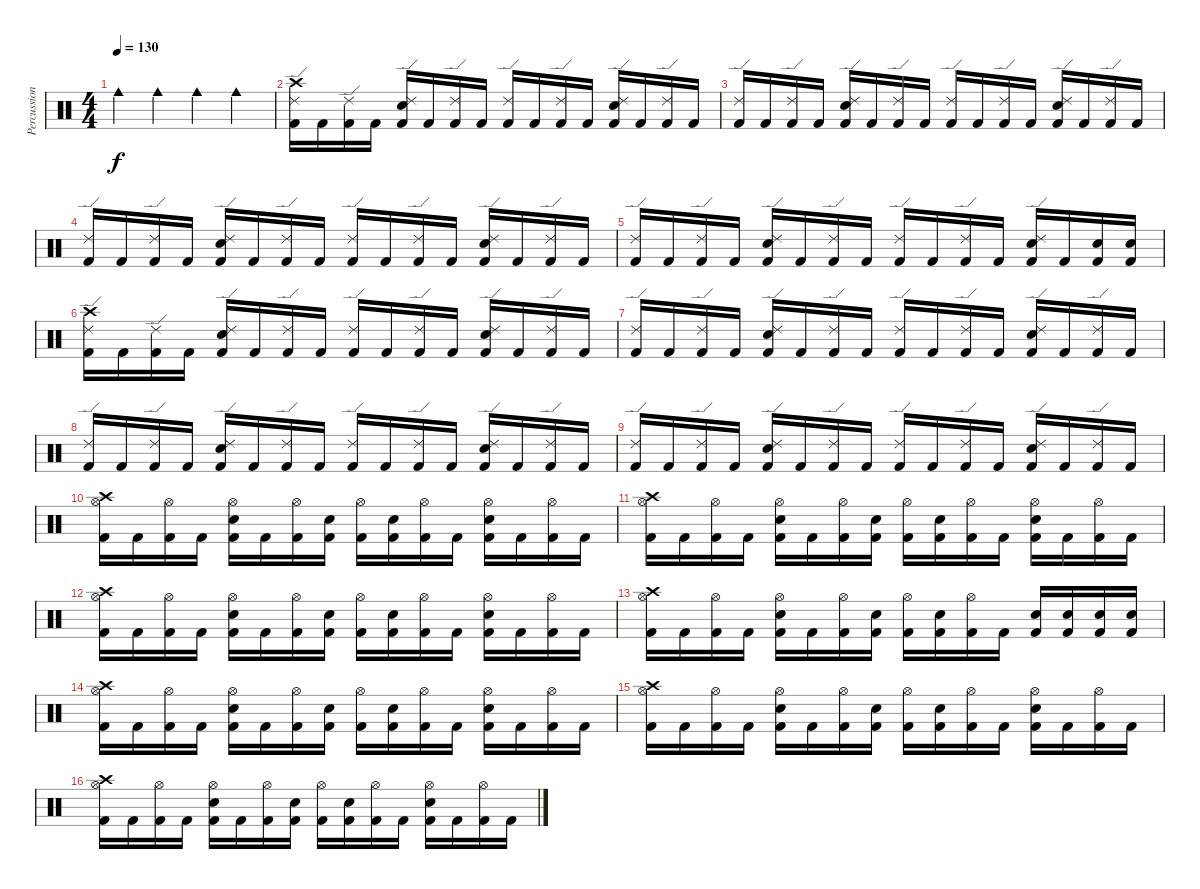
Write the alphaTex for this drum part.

\track ("Percussions" "Percussion") {instrument percussion}
\staff {score}
\articulation defaults
\ts (4 4)
\tempo 130
\clef neutral
\ks c "Cowbell medium (hit)".4{dy f} "Cowbell medium (hit)".4 "Cowbell medium (hit)".4 "Cowbell medium (hit)".4
|
("Crash high (hit)" "Ride (edge) 2" "Kick (hit) 2").16 "Kick (hit) 2".16 ("Ride (edge) 2" "Kick (hit) 2").16 "Kick (hit) 2".16 ("Electric Snare (hit)" "Ride (edge) 2" "Kick (hit) 2").16 "Kick (hit) 2".16 ("Ride (edge) 2" "Kick (hit) 2").16 "Kick (hit) 2".16 ("Ride (edge) 2" "Kick (hit) 2").16 "Kick (hit) 2".16 ("Ride (edge) 2" "Kick (hit) 2").16 "Kick (hit) 2".16 ("Electric Snare (hit)" "Ride (edge) 2" "Kick (hit) 2").16 "Kick (hit) 2".16 ("Ride (edge) 2" "Kick (hit) 2").16 "Kick (hit) 2".16 |
("Ride (edge) 2" "Kick (hit) 2").16 "Kick (hit) 2".16 ("Ride (edge) 2" "Kick (hit) 2").16 "Kick (hit) 2".16 ("Electric Snare (hit)" "Ride (edge) 2" "Kick (hit) 2").16 "Kick (hit) 2".16 ("Ride (edge) 2" "Kick (hit) 2").16 "Kick (hit) 2".16 ("Ride (edge) 2" "Kick (hit) 2").16 "Kick (hit) 2".16 ("Ride (edge) 2" "Kick (hit) 2").16 "Kick (hit) 2".16 ("Electric Snare (hit)" "Ride (edge) 2" "Kick (hit) 2").16 "Kick (hit) 2".16 ("Ride (edge) 2" "Kick (hit) 2").16 "Kick (hit) 2".16 |
("Ride (edge) 2" "Kick (hit) 2").16 "Kick (hit) 2".16 ("Ride (edge) 2" "Kick (hit) 2").16 "Kick (hit) 2".16 ("Electric Snare (hit)" "Ride (edge) 2" "Kick (hit) 2").16 "Kick (hit) 2".16 ("Ride (edge) 2" "Kick (hit) 2").16 "Kick (hit) 2".16 ("Ride (edge) 2" "Kick (hit) 2").16 "Kick (hit) 2".16 ("Ride (edge) 2" "Kick (hit) 2").16 "Kick (hit) 2".16 ("Electric Snare (hit)" "Ride (edge) 2" "Kick (hit) 2").16 "Kick (hit) 2".16 ("Ride (edge) 2" "Kick (hit) 2").16 "Kick (hit) 2".16 |
("Ride (edge) 2" "Kick (hit) 2").16 "Kick (hit) 2".16 ("Ride (edge) 2" "Kick (hit) 2").16 "Kick (hit) 2".16 ("Electric Snare (hit)" "Ride (edge) 2" "Kick (hit) 2").16 "Kick (hit) 2".16 ("Ride (edge) 2" "Kick (hit) 2").16 "Kick (hit) 2".16 ("Ride (edge) 2" "Kick (hit) 2").16 "Kick (hit) 2".16 ("Ride (edge) 2" "Kick (hit) 2").16 "Kick (hit) 2".16 ("Electric Snare (hit)" "Ride (edge) 2" "Kick (hit) 2").16 "Kick (hit) 2".16 ("Electric Snare (hit)" "Kick (hit) 2").16 ("Electric Snare (hit)" "Kick (hit) 2").16 |
("Crash high (hit)" "Ride (edge) 2" "Kick (hit) 2").16 "Kick (hit) 2".16 ("Ride (edge) 2" "Kick (hit) 2").16 "Kick (hit) 2".16 ("Electric Snare (hit)" "Ride (edge) 2" "Kick (hit) 2").16 "Kick (hit) 2".16 ("Ride (edge) 2" "Kick (hit) 2").16 "Kick (hit) 2".16 ("Ride (edge) 2" "Kick (hit) 2").16 "Kick (hit) 2".16 ("Ride (edge) 2" "Kick (hit) 2").16 "Kick (hit) 2".16 ("Electric Snare (hit)" "Ride (edge) 2" "Kick (hit) 2").16 "Kick (hit) 2".16 ("Ride (edge) 2" "Kick (hit) 2").16 "Kick (hit) 2".16 |
("Ride (edge) 2" "Kick (hit) 2").16 "Kick (hit) 2".16 ("Ride (edge) 2" "Kick (hit) 2").16 "Kick (hit) 2".16 ("Electric Snare (hit)" "Ride (edge) 2" "Kick (hit) 2").16 "Kick (hit) 2".16 ("Ride (edge) 2" "Kick (hit) 2").16 "Kick (hit) 2".16 ("Ride (edge) 2" "Kick (hit) 2").16 "Kick (hit) 2".16 ("Ride (edge) 2" "Kick (hit) 2").16 "Kick (hit) 2".16 ("Electric Snare (hit)" "Ride (edge) 2" "Kick (hit) 2").16 "Kick (hit) 2".16 ("Ride (edge) 2" "Kick (hit) 2").16 "Kick (hit) 2".16 |
("Ride (edge) 2" "Kick (hit) 2").16 "Kick (hit) 2".16 ("Ride (edge) 2" "Kick (hit) 2").16 "Kick (hit) 2".16 ("Electric Snare (hit)" "Ride (edge) 2" "Kick (hit) 2").16 "Kick (hit) 2".16 ("Ride (edge) 2" "Kick (hit) 2").16 "Kick (hit) 2".16 ("Ride (edge) 2" "Kick (hit) 2").16 "Kick (hit) 2".16 ("Ride (edge) 2" "Kick (hit) 2").16 "Kick (hit) 2".16 ("Electric Snare (hit)" "Ride (edge) 2" "Kick (hit) 2").16 "Kick (hit) 2".16 ("Ride (edge) 2" "Kick (hit) 2").16 "Kick (hit) 2".16 |
("Ride (edge) 2" "Kick (hit) 2").16 "Kick (hit) 2".16 ("Ride (edge) 2" "Kick (hit) 2").16 "Kick (hit) 2".16 ("Electric Snare (hit)" "Ride (edge) 2" "Kick (hit) 2").16 "Kick (hit) 2".16 ("Ride (edge) 2" "Kick (hit) 2").16 "Kick (hit) 2".16 ("Ride (edge) 2" "Kick (hit) 2").16 "Kick (hit) 2".16 ("Ride (edge) 2" "Kick (hit) 2").16 "Kick (hit) 2".16 ("Electric Snare (hit)" "Ride (edge) 2" "Kick (hit) 2").16 "Kick (hit) 2".16 ("Ride (edge) 2" "Kick (hit) 2").16 "Kick (hit) 2".16 |
("Crash high (hit)" "Hi-Hat (open)" "Kick (hit) 2").16 "Kick (hit) 2".16 ("Hi-Hat (open)" "Kick (hit) 2").16 "Kick (hit) 2".16 ("Electric Snare (hit)" "Hi-Hat (open)" "Kick (hit) 2").16 "Kick (hit) 2".16 ("Hi-Hat (open)" "Kick (hit) 2").16 ("Electric Snare (hit)" "Kick (hit) 2").16 ("Hi-Hat (open)" "Kick (hit) 2").16 ("Electric Snare (hit)" "Kick (hit) 2").16 ("Hi-Hat (open)" "Kick (hit) 2").16 "Kick (hit) 2".16 ("Electric Snare (hit)" "Hi-Hat (open)" "Kick (hit) 2").16 "Kick (hit) 2".16 ("Hi-Hat (open)" "Kick (hit) 2").16 "Kick (hit) 2".16 |
("Crash high (hit)" "Hi-Hat (open)" "Kick (hit) 2").16 "Kick (hit) 2".16 ("Hi-Hat (open)" "Kick (hit) 2").16 "Kick (hit) 2".16 ("Electric Snare (hit)" "Hi-Hat (open)" "Kick (hit) 2").16 "Kick (hit) 2".16 ("Hi-Hat (open)" "Kick (hit) 2").16 ("Electric Snare (hit)" "Kick (hit) 2").16 ("Hi-Hat (open)" "Kick (hit) 2").16 ("Electric Snare (hit)" "Kick (hit) 2").16 ("Hi-Hat (open)" "Kick (hit) 2").16 "Kick (hit) 2".16 ("Electric Snare (hit)" "Hi-Hat (open)" "Kick (hit) 2").16 "Kick (hit) 2".16 ("Hi-Hat (open)" "Kick (hit) 2").16 "Kick (hit) 2".16 |
("Crash high (hit)" "Hi-Hat (open)" "Kick (hit) 2").16 "Kick (hit) 2".16 ("Hi-Hat (open)" "Kick (hit) 2").16 "Kick (hit) 2".16 ("Electric Snare (hit)" "Hi-Hat (open)" "Kick (hit) 2").16 "Kick (hit) 2".16 ("Hi-Hat (open)" "Kick (hit) 2").16 ("Electric Snare (hit)" "Kick (hit) 2").16 ("Hi-Hat (open)" "Kick (hit) 2").16 ("Electric Snare (hit)" "Kick (hit) 2").16 ("Hi-Hat (open)" "Kick (hit) 2").16 "Kick (hit) 2".16 ("Electric Snare (hit)" "Hi-Hat (open)" "Kick (hit) 2").16 "Kick (hit) 2".16 ("Hi-Hat (open)" "Kick (hit) 2").16 "Kick (hit) 2".16 |
("Crash high (hit)" "Hi-Hat (open)" "Kick (hit) 2").16 "Kick (hit) 2".16 ("Hi-Hat (open)" "Kick (hit) 2").16 "Kick (hit) 2".16 ("Electric Snare (hit)" "Hi-Hat (open)" "Kick (hit) 2").16 "Kick (hit) 2".16 ("Hi-Hat (open)" "Kick (hit) 2").16 ("Electric Snare (hit)" "Kick (hit) 2").16 ("Hi-Hat (open)" "Kick (hit) 2").16 ("Electric Snare (hit)" "Kick (hit) 2").16 ("Hi-Hat (open)" "Kick (hit) 2").16 "Kick (hit) 2".16 ("Electric Snare (hit)" "Kick (hit) 2").16 ("Electric Snare (hit)" "Kick (hit) 2").16 ("Electric Snare (hit)" "Kick (hit) 2").16 ("Electric Snare (hit)" "Kick (hit) 2").16 |
("Crash high (hit)" "Hi-Hat (open)" "Kick (hit) 2").16 "Kick (hit) 2".16 ("Hi-Hat (open)" "Kick (hit) 2").16 "Kick (hit) 2".16 ("Electric Snare (hit)" "Hi-Hat (open)" "Kick (hit) 2").16 "Kick (hit) 2".16 ("Hi-Hat (open)" "Kick (hit) 2").16 ("Electric Snare (hit)" "Kick (hit) 2").16 ("Hi-Hat (open)" "Kick (hit) 2").16 ("Electric Snare (hit)" "Kick (hit) 2").16 ("Hi-Hat (open)" "Kick (hit) 2").16 "Kick (hit) 2".16 ("Electric Snare (hit)" "Hi-Hat (open)" "Kick (hit) 2").16 "Kick (hit) 2".16 ("Hi-Hat (open)" "Kick (hit) 2").16 "Kick (hit) 2".16 |
("Crash high (hit)" "Hi-Hat (open)" "Kick (hit) 2").16 "Kick (hit) 2".16 ("Hi-Hat (open)" "Kick (hit) 2").16 "Kick (hit) 2".16 ("Electric Snare (hit)" "Hi-Hat (open)" "Kick (hit) 2").16 "Kick (hit) 2".16 ("Hi-Hat (open)" "Kick (hit) 2").16 ("Electric Snare (hit)" "Kick (hit) 2").16 ("Hi-Hat (open)" "Kick (hit) 2").16 ("Electric Snare (hit)" "Kick (hit) 2").16 ("Hi-Hat (open)" "Kick (hit) 2").16 "Kick (hit) 2".16 ("Electric Snare (hit)" "Hi-Hat (open)" "Kick (hit) 2").16 "Kick (hit) 2".16 ("Hi-Hat (open)" "Kick (hit) 2").16 "Kick (hit) 2".16 |
("Crash high (hit)" "Hi-Hat (open)" "Kick (hit) 2").16 "Kick (hit) 2".16 ("Hi-Hat (open)" "Kick (hit) 2").16 "Kick (hit) 2".16 ("Electric Snare (hit)" "Hi-Hat (open)" "Kick (hit) 2").16 "Kick (hit) 2".16 ("Hi-Hat (open)" "Kick (hit) 2").16 ("Electric Snare (hit)" "Kick (hit) 2").16 ("Hi-Hat (open)" "Kick (hit) 2").16 ("Electric Snare (hit)" "Kick (hit) 2").16 ("Hi-Hat (open)" "Kick (hit) 2").16 "Kick (hit) 2".16 ("Electric Snare (hit)" "Hi-Hat (open)" "Kick (hit) 2").16 "Kick (hit) 2".16 ("Hi-Hat (open)" "Kick (hit) 2").16 "Kick (hit) 2".16
